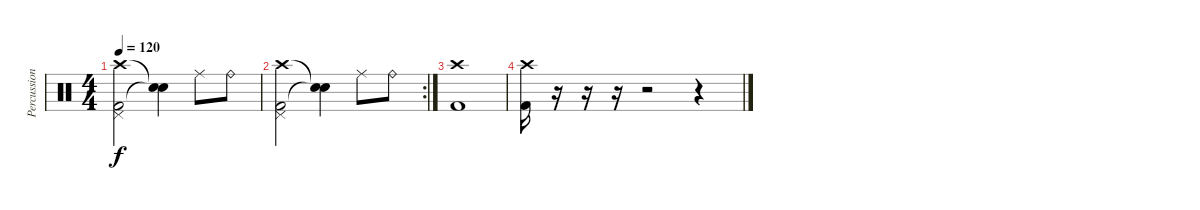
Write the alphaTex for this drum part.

\track ("Percussioni" "Percussion") {instrument percussion}
\staff {score}
\articulation defaults
\ts (4 4)
\tempo 120
\clef neutral
\ks c
("Crash high (hit)" "Kick (hit) 2" "Pedal Hi-Hat (hit)").2{dy f} ("Snare (hit)"{t} "Snare (hit)"{t}).4 "Ride (middle)".8 "Ride (bell)".8 |
\rc 2
("Crash high (hit)" "Kick (hit) 2" "Pedal Hi-Hat (hit)").2 ("Snare (hit)"{t} "Snare (hit)"{t}).4 "Ride (middle)".8 "Ride (bell)".8 |
("Crash high (hit)" "Kick (hit) 2").1 |
("Crash high (hit)" "Kick (hit) 2").16 r.16 r.16 r.16 r.2 r.4
